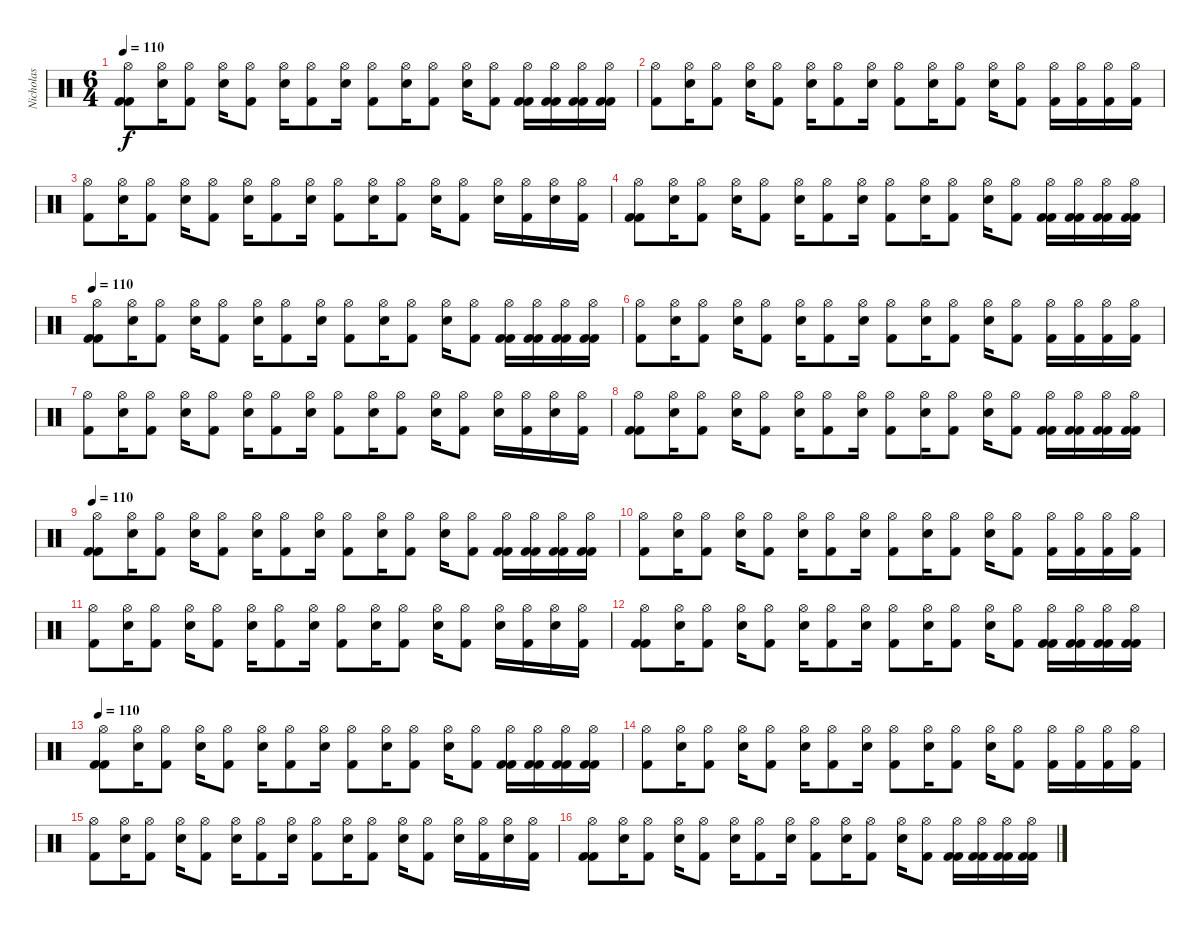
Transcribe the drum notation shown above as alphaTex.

\track ("Nicholas" "Nicholas") {instrument percussion}
\staff {score}
\articulation defaults
\ts (6 4)
\tempo 110
\clef neutral
\ks c
("Hi-Hat (open)" "Kick (hit) 2" "Kick (hit) 2").8{dy f} ("Hi-Hat (open)" "Snare (hit) 2").16 ("Hi-Hat (open)" "Kick (hit) 2").8 ("Hi-Hat (open)" "Snare (hit) 2").16 ("Hi-Hat (open)" "Kick (hit) 2").8 ("Hi-Hat (open)" "Snare (hit) 2").16 ("Hi-Hat (open)" "Kick (hit) 2").8 ("Hi-Hat (open)" "Snare (hit) 2").16 ("Hi-Hat (open)" "Kick (hit) 2").8 ("Hi-Hat (open)" "Snare (hit) 2").16 ("Hi-Hat (open)" "Kick (hit) 2").8 ("Hi-Hat (open)" "Snare (hit) 2").16 ("Hi-Hat (open)" "Kick (hit) 2").8 ("Hi-Hat (open)" "Kick (hit) 2" "Kick (hit) 2").16 ("Hi-Hat (open)" "Kick (hit) 2" "Kick (hit) 2").16 ("Hi-Hat (open)" "Kick (hit) 2" "Kick (hit) 2").16 ("Hi-Hat (open)" "Kick (hit) 2" "Kick (hit) 2").16 |
("Hi-Hat (open)" "Kick (hit) 2").8 ("Hi-Hat (open)" "Snare (hit) 2").16 ("Hi-Hat (open)" "Kick (hit) 2").8 ("Hi-Hat (open)" "Snare (hit) 2").16 ("Hi-Hat (open)" "Kick (hit) 2").8 ("Hi-Hat (open)" "Snare (hit) 2").16 ("Hi-Hat (open)" "Kick (hit) 2").8 ("Hi-Hat (open)" "Snare (hit) 2").16 ("Hi-Hat (open)" "Kick (hit) 2").8 ("Hi-Hat (open)" "Snare (hit) 2").16 ("Hi-Hat (open)" "Kick (hit) 2").8 ("Hi-Hat (open)" "Snare (hit) 2").16 ("Hi-Hat (open)" "Kick (hit) 2").8 ("Hi-Hat (open)" "Kick (hit) 2").16 ("Hi-Hat (open)" "Kick (hit) 2").16 ("Hi-Hat (open)" "Kick (hit) 2").16 ("Hi-Hat (open)" "Kick (hit) 2").16 |
("Hi-Hat (open)" "Kick (hit) 2").8 ("Hi-Hat (open)" "Snare (hit) 2").16 ("Hi-Hat (open)" "Kick (hit) 2").8 ("Hi-Hat (open)" "Snare (hit) 2").16 ("Hi-Hat (open)" "Kick (hit) 2").8 ("Hi-Hat (open)" "Snare (hit) 2").16 ("Hi-Hat (open)" "Kick (hit) 2").8 ("Hi-Hat (open)" "Snare (hit) 2").16 ("Hi-Hat (open)" "Kick (hit) 2").8 ("Hi-Hat (open)" "Snare (hit) 2").16 ("Hi-Hat (open)" "Kick (hit) 2").8 ("Hi-Hat (open)" "Snare (hit) 2").16 ("Hi-Hat (open)" "Kick (hit) 2").8 ("Hi-Hat (open)" "Snare (hit) 2").16 ("Hi-Hat (open)" "Kick (hit) 2").16 ("Hi-Hat (open)" "Snare (hit) 2").16 ("Hi-Hat (open)" "Kick (hit) 2").16 |
("Hi-Hat (open)" "Kick (hit) 2" "Kick (hit) 2").8 ("Hi-Hat (open)" "Snare (hit) 2").16 ("Hi-Hat (open)" "Kick (hit) 2").8 ("Hi-Hat (open)" "Snare (hit) 2").16 ("Hi-Hat (open)" "Kick (hit) 2").8 ("Hi-Hat (open)" "Snare (hit) 2").16 ("Hi-Hat (open)" "Kick (hit) 2").8 ("Hi-Hat (open)" "Snare (hit) 2").16 ("Hi-Hat (open)" "Kick (hit) 2").8 ("Hi-Hat (open)" "Snare (hit) 2").16 ("Hi-Hat (open)" "Kick (hit) 2").8 ("Hi-Hat (open)" "Snare (hit) 2").16 ("Hi-Hat (open)" "Kick (hit) 2").8 ("Hi-Hat (open)" "Kick (hit) 2" "Kick (hit) 2").16 ("Hi-Hat (open)" "Kick (hit) 2" "Kick (hit) 2").16 ("Hi-Hat (open)" "Kick (hit) 2" "Kick (hit) 2").16 ("Hi-Hat (open)" "Kick (hit) 2" "Kick (hit) 2").16 |
\tempo 110
("Hi-Hat (open)" "Kick (hit) 2" "Kick (hit) 2").8 ("Hi-Hat (open)" "Snare (hit) 2").16 ("Hi-Hat (open)" "Kick (hit) 2").8 ("Hi-Hat (open)" "Snare (hit) 2").16 ("Hi-Hat (open)" "Kick (hit) 2").8 ("Hi-Hat (open)" "Snare (hit) 2").16 ("Hi-Hat (open)" "Kick (hit) 2").8 ("Hi-Hat (open)" "Snare (hit) 2").16 ("Hi-Hat (open)" "Kick (hit) 2").8 ("Hi-Hat (open)" "Snare (hit) 2").16 ("Hi-Hat (open)" "Kick (hit) 2").8 ("Hi-Hat (open)" "Snare (hit) 2").16 ("Hi-Hat (open)" "Kick (hit) 2").8 ("Hi-Hat (open)" "Kick (hit) 2" "Kick (hit) 2").16 ("Hi-Hat (open)" "Kick (hit) 2" "Kick (hit) 2").16 ("Hi-Hat (open)" "Kick (hit) 2" "Kick (hit) 2").16 ("Hi-Hat (open)" "Kick (hit) 2" "Kick (hit) 2").16 |
("Hi-Hat (open)" "Kick (hit) 2").8 ("Hi-Hat (open)" "Snare (hit) 2").16 ("Hi-Hat (open)" "Kick (hit) 2").8 ("Hi-Hat (open)" "Snare (hit) 2").16 ("Hi-Hat (open)" "Kick (hit) 2").8 ("Hi-Hat (open)" "Snare (hit) 2").16 ("Hi-Hat (open)" "Kick (hit) 2").8 ("Hi-Hat (open)" "Snare (hit) 2").16 ("Hi-Hat (open)" "Kick (hit) 2").8 ("Hi-Hat (open)" "Snare (hit) 2").16 ("Hi-Hat (open)" "Kick (hit) 2").8 ("Hi-Hat (open)" "Snare (hit) 2").16 ("Hi-Hat (open)" "Kick (hit) 2").8 ("Hi-Hat (open)" "Kick (hit) 2").16 ("Hi-Hat (open)" "Kick (hit) 2").16 ("Hi-Hat (open)" "Kick (hit) 2").16 ("Hi-Hat (open)" "Kick (hit) 2").16 |
("Hi-Hat (open)" "Kick (hit) 2").8 ("Hi-Hat (open)" "Snare (hit) 2").16 ("Hi-Hat (open)" "Kick (hit) 2").8 ("Hi-Hat (open)" "Snare (hit) 2").16 ("Hi-Hat (open)" "Kick (hit) 2").8 ("Hi-Hat (open)" "Snare (hit) 2").16 ("Hi-Hat (open)" "Kick (hit) 2").8 ("Hi-Hat (open)" "Snare (hit) 2").16 ("Hi-Hat (open)" "Kick (hit) 2").8 ("Hi-Hat (open)" "Snare (hit) 2").16 ("Hi-Hat (open)" "Kick (hit) 2").8 ("Hi-Hat (open)" "Snare (hit) 2").16 ("Hi-Hat (open)" "Kick (hit) 2").8 ("Hi-Hat (open)" "Snare (hit) 2").16 ("Hi-Hat (open)" "Kick (hit) 2").16 ("Hi-Hat (open)" "Snare (hit) 2").16 ("Hi-Hat (open)" "Kick (hit) 2").16 |
("Hi-Hat (open)" "Kick (hit) 2" "Kick (hit) 2").8 ("Hi-Hat (open)" "Snare (hit) 2").16 ("Hi-Hat (open)" "Kick (hit) 2").8 ("Hi-Hat (open)" "Snare (hit) 2").16 ("Hi-Hat (open)" "Kick (hit) 2").8 ("Hi-Hat (open)" "Snare (hit) 2").16 ("Hi-Hat (open)" "Kick (hit) 2").8 ("Hi-Hat (open)" "Snare (hit) 2").16 ("Hi-Hat (open)" "Kick (hit) 2").8 ("Hi-Hat (open)" "Snare (hit) 2").16 ("Hi-Hat (open)" "Kick (hit) 2").8 ("Hi-Hat (open)" "Snare (hit) 2").16 ("Hi-Hat (open)" "Kick (hit) 2").8 ("Hi-Hat (open)" "Kick (hit) 2" "Kick (hit) 2").16 ("Hi-Hat (open)" "Kick (hit) 2" "Kick (hit) 2").16 ("Hi-Hat (open)" "Kick (hit) 2" "Kick (hit) 2").16 ("Hi-Hat (open)" "Kick (hit) 2" "Kick (hit) 2").16 |
\tempo 110
("Hi-Hat (open)" "Kick (hit) 2" "Kick (hit) 2").8 ("Hi-Hat (open)" "Snare (hit) 2").16 ("Hi-Hat (open)" "Kick (hit) 2").8 ("Hi-Hat (open)" "Snare (hit) 2").16 ("Hi-Hat (open)" "Kick (hit) 2").8 ("Hi-Hat (open)" "Snare (hit) 2").16 ("Hi-Hat (open)" "Kick (hit) 2").8 ("Hi-Hat (open)" "Snare (hit) 2").16 ("Hi-Hat (open)" "Kick (hit) 2").8 ("Hi-Hat (open)" "Snare (hit) 2").16 ("Hi-Hat (open)" "Kick (hit) 2").8 ("Hi-Hat (open)" "Snare (hit) 2").16 ("Hi-Hat (open)" "Kick (hit) 2").8 ("Hi-Hat (open)" "Kick (hit) 2" "Kick (hit) 2").16 ("Hi-Hat (open)" "Kick (hit) 2" "Kick (hit) 2").16 ("Hi-Hat (open)" "Kick (hit) 2" "Kick (hit) 2").16 ("Hi-Hat (open)" "Kick (hit) 2" "Kick (hit) 2").16 |
("Hi-Hat (open)" "Kick (hit) 2").8 ("Hi-Hat (open)" "Snare (hit) 2").16 ("Hi-Hat (open)" "Kick (hit) 2").8 ("Hi-Hat (open)" "Snare (hit) 2").16 ("Hi-Hat (open)" "Kick (hit) 2").8 ("Hi-Hat (open)" "Snare (hit) 2").16 ("Hi-Hat (open)" "Kick (hit) 2").8 ("Hi-Hat (open)" "Snare (hit) 2").16 ("Hi-Hat (open)" "Kick (hit) 2").8 ("Hi-Hat (open)" "Snare (hit) 2").16 ("Hi-Hat (open)" "Kick (hit) 2").8 ("Hi-Hat (open)" "Snare (hit) 2").16 ("Hi-Hat (open)" "Kick (hit) 2").8 ("Hi-Hat (open)" "Kick (hit) 2").16 ("Hi-Hat (open)" "Kick (hit) 2").16 ("Hi-Hat (open)" "Kick (hit) 2").16 ("Hi-Hat (open)" "Kick (hit) 2").16 |
("Hi-Hat (open)" "Kick (hit) 2").8 ("Hi-Hat (open)" "Snare (hit) 2").16 ("Hi-Hat (open)" "Kick (hit) 2").8 ("Hi-Hat (open)" "Snare (hit) 2").16 ("Hi-Hat (open)" "Kick (hit) 2").8 ("Hi-Hat (open)" "Snare (hit) 2").16 ("Hi-Hat (open)" "Kick (hit) 2").8 ("Hi-Hat (open)" "Snare (hit) 2").16 ("Hi-Hat (open)" "Kick (hit) 2").8 ("Hi-Hat (open)" "Snare (hit) 2").16 ("Hi-Hat (open)" "Kick (hit) 2").8 ("Hi-Hat (open)" "Snare (hit) 2").16 ("Hi-Hat (open)" "Kick (hit) 2").8 ("Hi-Hat (open)" "Snare (hit) 2").16 ("Hi-Hat (open)" "Kick (hit) 2").16 ("Hi-Hat (open)" "Snare (hit) 2").16 ("Hi-Hat (open)" "Kick (hit) 2").16 |
("Hi-Hat (open)" "Kick (hit) 2" "Kick (hit) 2").8 ("Hi-Hat (open)" "Snare (hit) 2").16 ("Hi-Hat (open)" "Kick (hit) 2").8 ("Hi-Hat (open)" "Snare (hit) 2").16 ("Hi-Hat (open)" "Kick (hit) 2").8 ("Hi-Hat (open)" "Snare (hit) 2").16 ("Hi-Hat (open)" "Kick (hit) 2").8 ("Hi-Hat (open)" "Snare (hit) 2").16 ("Hi-Hat (open)" "Kick (hit) 2").8 ("Hi-Hat (open)" "Snare (hit) 2").16 ("Hi-Hat (open)" "Kick (hit) 2").8 ("Hi-Hat (open)" "Snare (hit) 2").16 ("Hi-Hat (open)" "Kick (hit) 2").8 ("Hi-Hat (open)" "Kick (hit) 2" "Kick (hit) 2").16 ("Hi-Hat (open)" "Kick (hit) 2" "Kick (hit) 2").16 ("Hi-Hat (open)" "Kick (hit) 2" "Kick (hit) 2").16 ("Hi-Hat (open)" "Kick (hit) 2" "Kick (hit) 2").16 |
\tempo 110
("Hi-Hat (open)" "Kick (hit) 2" "Kick (hit) 2").8 ("Hi-Hat (open)" "Snare (hit) 2").16 ("Hi-Hat (open)" "Kick (hit) 2").8 ("Hi-Hat (open)" "Snare (hit) 2").16 ("Hi-Hat (open)" "Kick (hit) 2").8 ("Hi-Hat (open)" "Snare (hit) 2").16 ("Hi-Hat (open)" "Kick (hit) 2").8 ("Hi-Hat (open)" "Snare (hit) 2").16 ("Hi-Hat (open)" "Kick (hit) 2").8 ("Hi-Hat (open)" "Snare (hit) 2").16 ("Hi-Hat (open)" "Kick (hit) 2").8 ("Hi-Hat (open)" "Snare (hit) 2").16 ("Hi-Hat (open)" "Kick (hit) 2").8 ("Hi-Hat (open)" "Kick (hit) 2" "Kick (hit) 2").16 ("Hi-Hat (open)" "Kick (hit) 2" "Kick (hit) 2").16 ("Hi-Hat (open)" "Kick (hit) 2" "Kick (hit) 2").16 ("Hi-Hat (open)" "Kick (hit) 2" "Kick (hit) 2").16 |
("Hi-Hat (open)" "Kick (hit) 2").8 ("Hi-Hat (open)" "Snare (hit) 2").16 ("Hi-Hat (open)" "Kick (hit) 2").8 ("Hi-Hat (open)" "Snare (hit) 2").16 ("Hi-Hat (open)" "Kick (hit) 2").8 ("Hi-Hat (open)" "Snare (hit) 2").16 ("Hi-Hat (open)" "Kick (hit) 2").8 ("Hi-Hat (open)" "Snare (hit) 2").16 ("Hi-Hat (open)" "Kick (hit) 2").8 ("Hi-Hat (open)" "Snare (hit) 2").16 ("Hi-Hat (open)" "Kick (hit) 2").8 ("Hi-Hat (open)" "Snare (hit) 2").16 ("Hi-Hat (open)" "Kick (hit) 2").8 ("Hi-Hat (open)" "Kick (hit) 2").16 ("Hi-Hat (open)" "Kick (hit) 2").16 ("Hi-Hat (open)" "Kick (hit) 2").16 ("Hi-Hat (open)" "Kick (hit) 2").16 |
("Hi-Hat (open)" "Kick (hit) 2").8 ("Hi-Hat (open)" "Snare (hit) 2").16 ("Hi-Hat (open)" "Kick (hit) 2").8 ("Hi-Hat (open)" "Snare (hit) 2").16 ("Hi-Hat (open)" "Kick (hit) 2").8 ("Hi-Hat (open)" "Snare (hit) 2").16 ("Hi-Hat (open)" "Kick (hit) 2").8 ("Hi-Hat (open)" "Snare (hit) 2").16 ("Hi-Hat (open)" "Kick (hit) 2").8 ("Hi-Hat (open)" "Snare (hit) 2").16 ("Hi-Hat (open)" "Kick (hit) 2").8 ("Hi-Hat (open)" "Snare (hit) 2").16 ("Hi-Hat (open)" "Kick (hit) 2").8 ("Hi-Hat (open)" "Snare (hit) 2").16 ("Hi-Hat (open)" "Kick (hit) 2").16 ("Hi-Hat (open)" "Snare (hit) 2").16 ("Hi-Hat (open)" "Kick (hit) 2").16 |
("Hi-Hat (open)" "Kick (hit) 2" "Kick (hit) 2").8 ("Hi-Hat (open)" "Snare (hit) 2").16 ("Hi-Hat (open)" "Kick (hit) 2").8 ("Hi-Hat (open)" "Snare (hit) 2").16 ("Hi-Hat (open)" "Kick (hit) 2").8 ("Hi-Hat (open)" "Snare (hit) 2").16 ("Hi-Hat (open)" "Kick (hit) 2").8 ("Hi-Hat (open)" "Snare (hit) 2").16 ("Hi-Hat (open)" "Kick (hit) 2").8 ("Hi-Hat (open)" "Snare (hit) 2").16 ("Hi-Hat (open)" "Kick (hit) 2").8 ("Hi-Hat (open)" "Snare (hit) 2").16 ("Hi-Hat (open)" "Kick (hit) 2").8 ("Hi-Hat (open)" "Kick (hit) 2" "Kick (hit) 2").16 ("Hi-Hat (open)" "Kick (hit) 2" "Kick (hit) 2").16 ("Hi-Hat (open)" "Kick (hit) 2" "Kick (hit) 2").16 ("Hi-Hat (open)" "Kick (hit) 2" "Kick (hit) 2").16
